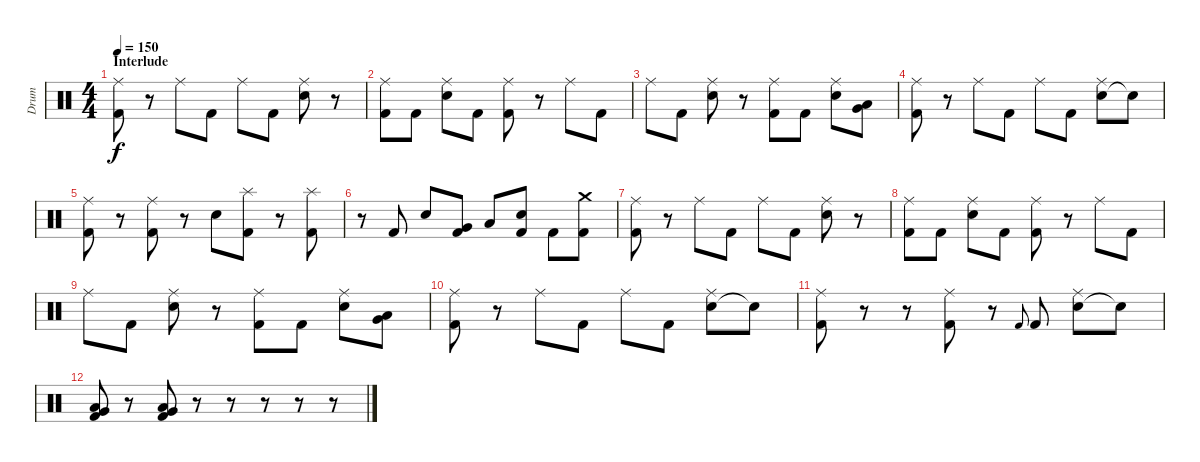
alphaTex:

\track ("Drum" "Drum") {instrument percussion}
\staff {score}
\articulation defaults
\ts (4 4)
\section ("" "Interlude")
\tempo 150
\clef neutral
\ks c
("Kick (hit) 2" "Ride (middle)").8{dy f} r.8 "Ride (middle)".8 "Kick (hit) 2".8 "Ride (middle)".8 "Kick (hit) 2".8 ("Electric Snare (hit)" "Ride (middle)").8 r.8 |
("Kick (hit) 2" "Ride (middle)").8 "Kick (hit) 2".8 ("Electric Snare (hit)" "Ride (middle)").8 "Kick (hit) 2".8 ("Kick (hit) 2" "Ride (middle)").8 r.8 "Ride (middle)".8 "Kick (hit) 2".8 |
"Ride (middle)".8 "Kick (hit) 2".8 ("Electric Snare (hit)" "Ride (middle)").8 r.8 ("Kick (hit) 2" "Ride (middle)").8 "Kick (hit) 2".8 ("Electric Snare (hit)" "Ride (middle)").8 ("Low Tom (hit)" "Very Low Tom (hit)").8 |
("Kick (hit) 2" "Ride (middle)").8 r.8 "Ride (middle)".8 "Kick (hit) 2".8 "Ride (middle)".8 "Kick (hit) 2".8 ("Electric Snare (hit)" "Ride (middle)").8 "Snare (hit)"{t}.8 |
("Kick (hit) 2" "Ride (middle)").8 r.8 ("Kick (hit) 2" "Ride (middle)").8 r.8 "Electric Snare (hit)".8 ("Kick (hit) 2" "Splash (hit)").8 r.8 ("Kick (hit) 2" "Splash (hit)").8 |
r.8 "Kick (hit) 2".8 "Electric Snare (hit)".8 ("Kick (hit) 2" "Very Low Tom (hit)").8 "Low Tom (hit)".8 ("Kick (hit) 2" "Electric Snare (hit)").8 "Kick (hit) 2".8 ("Kick (hit) 2" "Crash medium (hit)").8 |
("Kick (hit) 2" "Ride (middle)").8 r.8 "Ride (middle)".8 "Kick (hit) 2".8 "Ride (middle)".8 "Kick (hit) 2".8 ("Electric Snare (hit)" "Ride (middle)").8 r.8 |
("Kick (hit) 2" "Ride (middle)").8 "Kick (hit) 2".8 ("Electric Snare (hit)" "Ride (middle)").8 "Kick (hit) 2".8 ("Kick (hit) 2" "Ride (middle)").8 r.8 "Ride (middle)".8 "Kick (hit) 2".8 |
"Ride (middle)".8 "Kick (hit) 2".8 ("Electric Snare (hit)" "Ride (middle)").8 r.8 ("Kick (hit) 2" "Ride (middle)").8 "Kick (hit) 2".8 ("Electric Snare (hit)" "Ride (middle)").8 ("Low Tom (hit)" "Very Low Tom (hit)").8 |
("Kick (hit) 2" "Ride (middle)").8 r.8 "Ride (middle)".8 "Kick (hit) 2".8 "Ride (middle)".8 "Kick (hit) 2".8 ("Electric Snare (hit)" "Ride (middle)").8 "Snare (hit)"{t}.8 |
("Kick (hit) 2" "Ride (middle)").8 r.8 r.8 ("Kick (hit) 2" "Ride (middle)").8 r.8 "Kick (hit) 2".8{gr onbeat} "Kick (hit) 2".8 ("Electric Snare (hit)" "Ride (middle)").8 "Snare (hit)"{t}.8 |
("Kick (hit) 2" "Very Low Tom (hit)" "Low Tom (hit)").8 r.8 ("Kick (hit) 2" "Very Low Tom (hit)" "Low Tom (hit)").8 r.8 r.8 r.8 r.8 r.8
